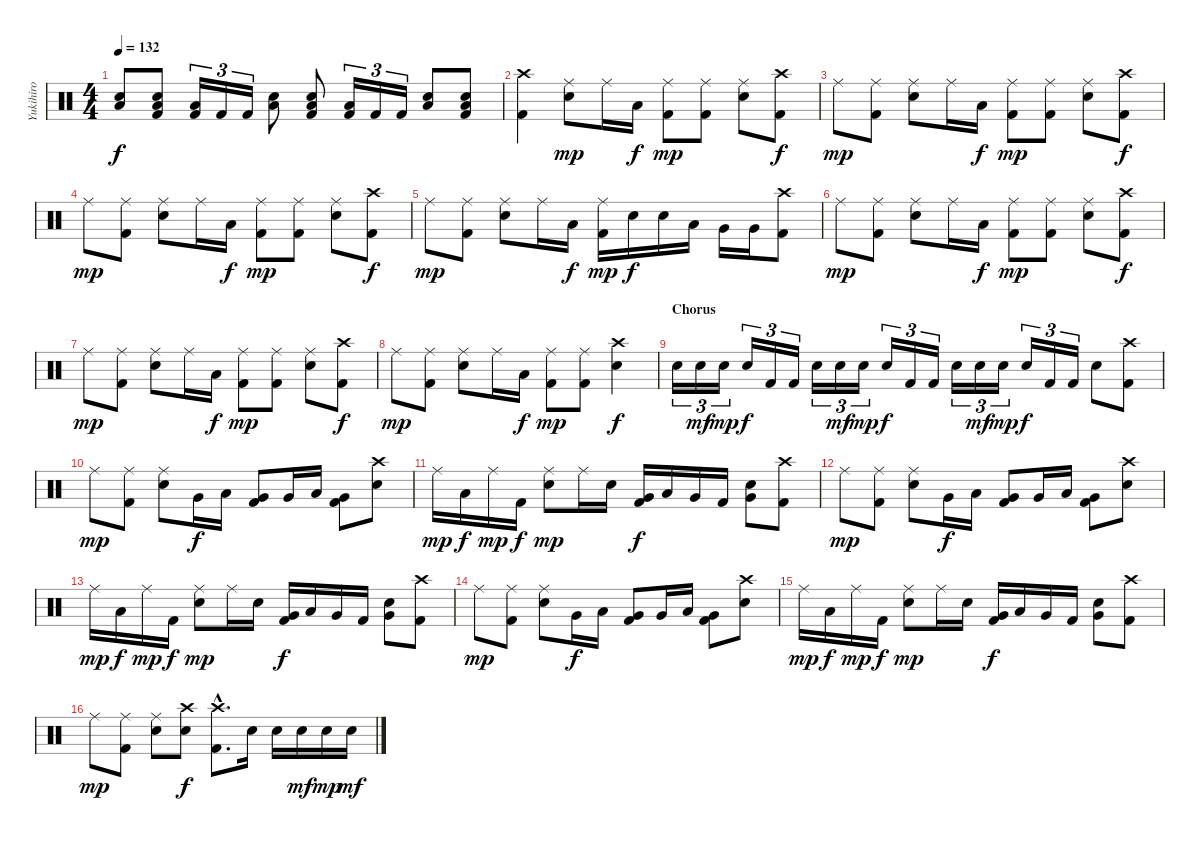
\track ("Yukihiro" "Yukihiro") {instrument percussion}
\staff {score}
\articulation defaults
\ts (4 4)
\tempo 132
\clef neutral
\ks c
("Electric Snare (hit)" "Low Floor Tom (hit)").8{dy f} ("Electric Snare (hit)" "Low Floor Tom (hit)" "Kick (hit) 2").8 ("Low Floor Tom (hit)" "Kick (hit) 2").16{tu (3 2)} "Kick (hit) 2".16{tu (3 2)} "Kick (hit) 2".16{tu (3 2)} ("Electric Snare (hit)" "Low Floor Tom (hit)").8 ("Electric Snare (hit)" "Low Floor Tom (hit)" "Kick (hit) 2").8 ("Low Floor Tom (hit)" "Kick (hit) 2").16{tu (3 2)} "Kick (hit) 2".16{tu (3 2)} "Kick (hit) 2".16{tu (3 2)} ("Electric Snare (hit)" "Low Floor Tom (hit)").8 ("Electric Snare (hit)" "Low Floor Tom (hit)" "Kick (hit) 2").8 |
("Crash high (hit)" "Kick (hit) 2").4 ("Ride (middle)" "Electric Snare (hit)").8{dy mp} "Ride (middle)".16 "Low Tom (hit)".16{dy f} ("Ride (middle)" "Kick (hit) 2").8{dy mp} ("Ride (middle)" "Kick (hit) 2").8 ("Ride (middle)" "Electric Snare (hit)").8 ("Crash high (hit)" "Kick (hit) 2").8{dy f} |
"Ride (middle)".8{dy mp} ("Ride (middle)" "Kick (hit) 2").8 ("Ride (middle)" "Electric Snare (hit)").8 "Ride (middle)".16 "Low Tom (hit)".16{dy f} ("Ride (middle)" "Kick (hit) 2").8{dy mp} ("Ride (middle)" "Kick (hit) 2").8 ("Ride (middle)" "Electric Snare (hit)").8 ("Crash high (hit)" "Kick (hit) 2").8{dy f} |
"Ride (middle)".8{dy mp} ("Ride (middle)" "Kick (hit) 2").8 ("Ride (middle)" "Electric Snare (hit)").8 "Ride (middle)".16 "Low Tom (hit)".16{dy f} ("Ride (middle)" "Kick (hit) 2").8{dy mp} ("Ride (middle)" "Kick (hit) 2").8 ("Ride (middle)" "Electric Snare (hit)").8 ("Crash high (hit)" "Kick (hit) 2").8{dy f} |
"Ride (middle)".8{dy mp} ("Ride (middle)" "Kick (hit) 2").8 ("Ride (middle)" "Electric Snare (hit)").8 "Ride (middle)".16 "Low Tom (hit)".16{dy f} ("Ride (middle)" "Kick (hit) 2").16{dy mp} "Electric Snare (hit)".16{dy f} "Electric Snare (hit)".16 "Low Tom (hit)".16 "Very Low Tom (hit)".16 "Very Low Tom (hit)".16 ("Crash high (hit)" "Kick (hit) 2").8 |
"Ride (middle)".8{dy mp} ("Ride (middle)" "Kick (hit) 2").8 ("Ride (middle)" "Electric Snare (hit)").8 "Ride (middle)".16 "Low Tom (hit)".16{dy f} ("Ride (middle)" "Kick (hit) 2").8{dy mp} ("Ride (middle)" "Kick (hit) 2").8 ("Ride (middle)" "Electric Snare (hit)").8 ("Crash high (hit)" "Kick (hit) 2").8{dy f} |
"Ride (middle)".8{dy mp} ("Ride (middle)" "Kick (hit) 2").8 ("Ride (middle)" "Electric Snare (hit)").8 "Ride (middle)".16 "Low Tom (hit)".16{dy f} ("Ride (middle)" "Kick (hit) 2").8{dy mp} ("Ride (middle)" "Kick (hit) 2").8 ("Ride (middle)" "Electric Snare (hit)").8 ("Crash high (hit)" "Kick (hit) 2").8{dy f} |
"Ride (middle)".8{dy mp} ("Ride (middle)" "Kick (hit) 2").8 ("Ride (middle)" "Electric Snare (hit)").8 "Ride (middle)".16 "Low Tom (hit)".16{dy f} ("Ride (middle)" "Kick (hit) 2").8{dy mp} ("Ride (middle)" "Kick (hit) 2").8 ("Crash high (hit)" "Electric Snare (hit)").4{dy f} |
\section ("" "Chorus")
"Electric Snare (hit)".16{tu (3 2)} "Electric Snare (hit)".16{tu (3 2) dy mf} "Electric Snare (hit)".16{tu (3 2) dy mp} "Electric Snare (hit)".16{tu (3 2) dy f} "Kick (hit) 2".16{tu (3 2)} "Kick (hit) 2".16{tu (3 2)} "Electric Snare (hit)".16{tu (3 2)} "Electric Snare (hit)".16{tu (3 2) dy mf} "Electric Snare (hit)".16{tu (3 2) dy mp} "Electric Snare (hit)".16{tu (3 2) dy f} "Kick (hit) 2".16{tu (3 2)} "Kick (hit) 2".16{tu (3 2)} "Electric Snare (hit)".16{tu (3 2)} "Electric Snare (hit)".16{tu (3 2) dy mf} "Electric Snare (hit)".16{tu (3 2) dy mp} "Electric Snare (hit)".16{tu (3 2) dy f} "Kick (hit) 2".16{tu (3 2)} "Kick (hit) 2".16{tu (3 2)} "Electric Snare (hit)".8 ("Crash high (hit)" "Kick (hit) 2").8 |
"Ride (middle)".8{dy mp} ("Ride (middle)" "Kick (hit) 2").8 ("Ride (middle)" "Electric Snare (hit)").8 "Very Low Tom (hit)".16{dy f} "Low Tom (hit)".16 ("Very Low Tom (hit)" "Kick (hit) 2").8 "Very Low Tom (hit)".16 "Low Tom (hit)".16 ("Very Low Tom (hit)" "Kick (hit) 2").8 ("Crash high (hit)" "Electric Snare (hit)").8 |
"Ride (middle)".16{dy mp} "Low Tom (hit)".16{dy f} "Ride (middle)".16{dy mp} "Kick (hit) 2".16{dy f} ("Ride (middle)" "Electric Snare (hit)").8{dy mp} "Ride (middle)".16 "Electric Snare (hit)".16 ("Very Low Tom (hit)" "Kick (hit) 2").16{dy f} "Low Tom (hit)".16 "Very Low Tom (hit)".16 "Kick (hit) 2".16 ("Electric Snare (hit)" "Very Low Tom (hit)").8 ("Crash high (hit)" "Kick (hit) 2").8 |
"Ride (middle)".8{dy mp} ("Ride (middle)" "Kick (hit) 2").8 ("Ride (middle)" "Electric Snare (hit)").8 "Very Low Tom (hit)".16{dy f} "Low Tom (hit)".16 ("Very Low Tom (hit)" "Kick (hit) 2").8 "Very Low Tom (hit)".16 "Low Tom (hit)".16 ("Very Low Tom (hit)" "Kick (hit) 2").8 ("Crash high (hit)" "Electric Snare (hit)").8 |
"Ride (middle)".16{dy mp} "Low Tom (hit)".16{dy f} "Ride (middle)".16{dy mp} "Kick (hit) 2".16{dy f} ("Ride (middle)" "Electric Snare (hit)").8{dy mp} "Ride (middle)".16 "Electric Snare (hit)".16 ("Very Low Tom (hit)" "Kick (hit) 2").16{dy f} "Low Tom (hit)".16 "Very Low Tom (hit)".16 "Kick (hit) 2".16 ("Electric Snare (hit)" "Very Low Tom (hit)").8 ("Crash high (hit)" "Kick (hit) 2").8 |
"Ride (middle)".8{dy mp} ("Ride (middle)" "Kick (hit) 2").8 ("Ride (middle)" "Electric Snare (hit)").8 "Very Low Tom (hit)".16{dy f} "Low Tom (hit)".16 ("Very Low Tom (hit)" "Kick (hit) 2").8 "Very Low Tom (hit)".16 "Low Tom (hit)".16 ("Very Low Tom (hit)" "Kick (hit) 2").8 ("Crash high (hit)" "Electric Snare (hit)").8 |
"Ride (middle)".16{dy mp} "Low Tom (hit)".16{dy f} "Ride (middle)".16{dy mp} "Kick (hit) 2".16{dy f} ("Ride (middle)" "Electric Snare (hit)").8{dy mp} "Ride (middle)".16 "Electric Snare (hit)".16 ("Very Low Tom (hit)" "Kick (hit) 2").16{dy f} "Low Tom (hit)".16 "Very Low Tom (hit)".16 "Kick (hit) 2".16 ("Electric Snare (hit)" "Very Low Tom (hit)").8 ("Crash high (hit)" "Kick (hit) 2").8 |
"Ride (middle)".8{dy mp} ("Ride (middle)" "Kick (hit) 2").8 ("Ride (middle)" "Electric Snare (hit)").8 ("Crash high (hit)" "Electric Snare (hit)").8{dy f} ("Crash high (hit)"{hac} "Kick (hit) 2"{hac}).8{d} "Electric Snare (hit)".16 "Electric Snare (hit)".16 "Electric Snare (hit)".16{dy mf} "Electric Snare (hit)".16{dy mp} "Electric Snare (hit)".16{dy mf}
